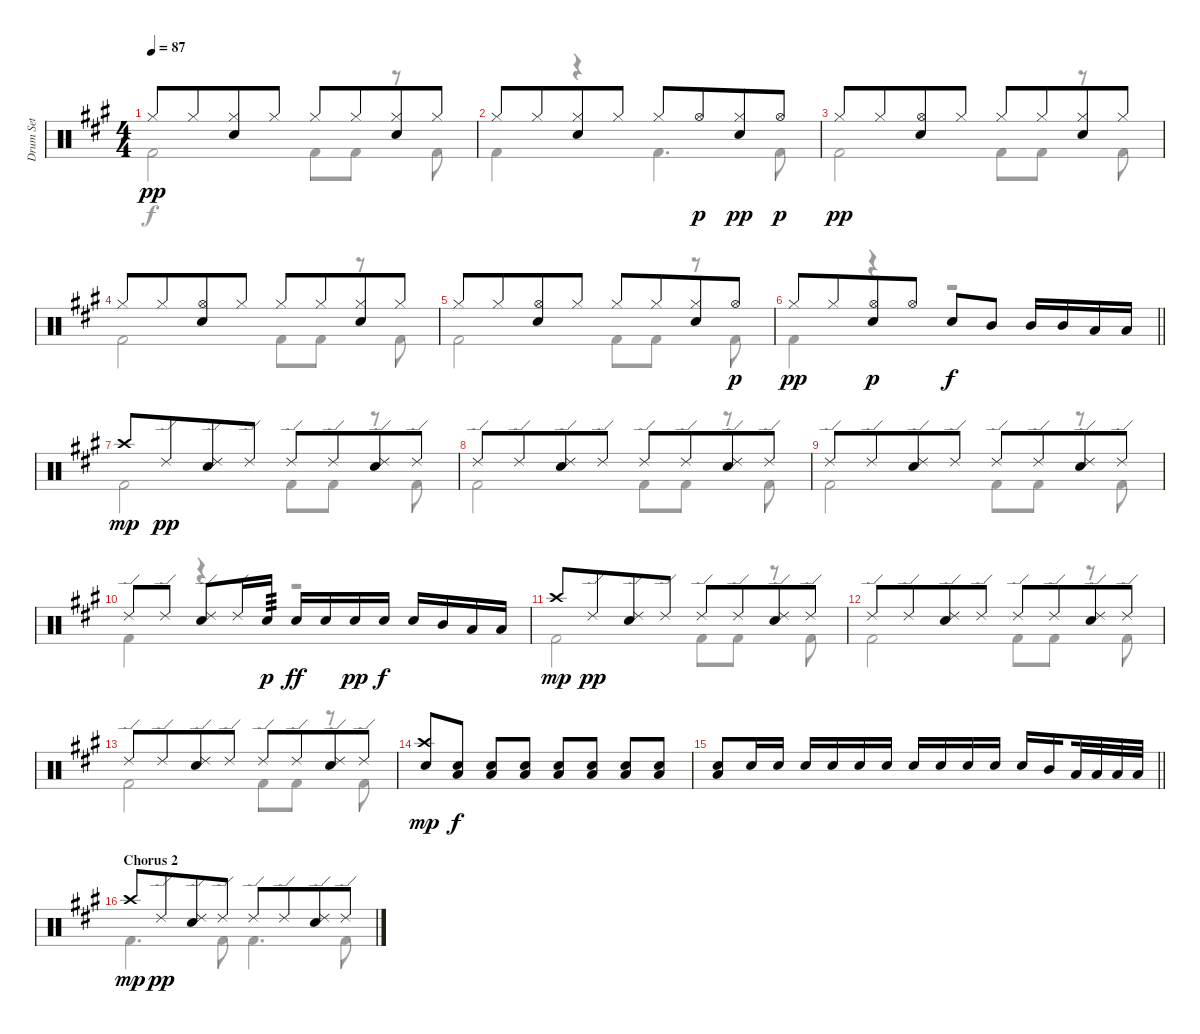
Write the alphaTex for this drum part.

\track ("Drum Set" "Drum Set") {instrument percussion}
\staff {score}
\articulation defaults
\voice
\ts (4 4)
\tempo 87
\clef neutral
\ks f#minor "Hi-Hat (closed)".8{dy pp} "Hi-Hat (closed)".8{beam merge}
("Hi-Hat (closed)" "Electric Snare (hit)").8 "Hi-Hat (closed)".8 "Hi-Hat (closed)".8 "Hi-Hat (closed)".8{beam merge} ("Hi-Hat (closed)" "Electric Snare (hit)").8 "Hi-Hat (closed)".8 |
"Hi-Hat (closed)".8 "Hi-Hat (closed)".8{beam merge} ("Hi-Hat (closed)" "Electric Snare (hit)").8 "Hi-Hat (closed)".8 "Hi-Hat (closed)".8 "Hi-Hat (open)".8{dy p beam merge} ("Hi-Hat (closed)" "Electric Snare (hit)").8{dy pp} "Hi-Hat (open)".8{dy p} |
"Hi-Hat (closed)".8{dy pp} "Hi-Hat (closed)".8{beam merge} ("Hi-Hat (open)" "Electric Snare (hit)").8 "Hi-Hat (closed)".8 "Hi-Hat (closed)".8 "Hi-Hat (closed)".8{beam merge} ("Hi-Hat (closed)" "Electric Snare (hit)").8 "Hi-Hat (closed)".8 |
"Hi-Hat (closed)".8 "Hi-Hat (closed)".8{beam merge} ("Hi-Hat (open)" "Electric Snare (hit)").8 "Hi-Hat (closed)".8 "Hi-Hat (closed)".8 "Hi-Hat (closed)".8{beam merge} ("Hi-Hat (closed)" "Electric Snare (hit)").8 "Hi-Hat (closed)".8 |
"Hi-Hat (closed)".8 "Hi-Hat (closed)".8{beam merge} ("Hi-Hat (open)" "Electric Snare (hit)").8 "Hi-Hat (closed)".8 "Hi-Hat (closed)".8 "Hi-Hat (closed)".8{beam merge} ("Hi-Hat (closed)" "Electric Snare (hit)").8 "Hi-Hat (open)".8{dy p} |
\barLineRight lightlight "Hi-Hat (closed)".8{dy pp} "Hi-Hat (closed)".8{beam merge}
("Hi-Hat (open)" "Electric Snare (hit)").8{dy p} "Hi-Hat (open)".8 "Electric Snare (hit)".8{dy f} "Mid Tom (hit)".8 "Mid Tom (hit)".16 "Mid Tom (hit)".16 "Low Tom (hit)".16 "Low Tom (hit)".16 |
"Crash high (hit)".8{dy mp} "Ride (edge) 2".8{dy pp beam merge} ("Ride (edge) 2" "Electric Snare (hit)").8 "Ride (edge) 2".8 "Ride (edge) 2".8 "Ride (edge) 2".8{beam merge} ("Ride (edge) 2" "Electric Snare (hit)").8 "Ride (edge) 2".8 |
"Ride (edge) 2".8 "Ride (edge) 2".8{beam merge} ("Ride (edge) 2" "Electric Snare (hit)").8 "Ride (edge) 2".8 "Ride (edge) 2".8 "Ride (edge) 2".8{beam merge} ("Ride (edge) 2" "Electric Snare (hit)").8 "Ride (edge) 2".8 |
"Ride (edge) 2".8 "Ride (edge) 2".8{beam merge} ("Ride (edge) 2" "Electric Snare (hit)").8 "Ride (edge) 2".8 "Ride (edge) 2".8 "Ride (edge) 2".8{beam merge} ("Ride (edge) 2" "Electric Snare (hit)").8 "Ride (edge) 2".8 |
"Ride (edge) 2".8 "Ride (edge) 2".8 ("Ride (edge) 2" "Electric Snare (hit)").8 "Ride (edge) 2".16 "Electric Snare (hit)".16{tp 3 dy p} "Electric Snare (hit)".16{dy ff} "Electric Snare (hit)".16 "Electric Snare (hit)".16{dy pp} "Electric Snare (hit)".16{dy f} "Electric Snare (hit)".16 "Mid Tom (hit)".16 "Low Tom (hit)".16 "Low Tom (hit)".16 |
"Crash high (hit)".8{dy mp} "Ride (edge) 2".8{dy pp beam merge} ("Ride (edge) 2" "Electric Snare (hit)").8 "Ride (edge) 2".8 "Ride (edge) 2".8 "Ride (edge) 2".8{beam merge} ("Ride (edge) 2" "Electric Snare (hit)").8 "Ride (edge) 2".8 |
"Ride (edge) 2".8 "Ride (edge) 2".8{beam merge} ("Ride (edge) 2" "Electric Snare (hit)").8 "Ride (edge) 2".8 "Ride (edge) 2".8 "Ride (edge) 2".8{beam merge} ("Ride (edge) 2" "Electric Snare (hit)").8 "Ride (edge) 2".8 |
"Ride (edge) 2".8 "Ride (edge) 2".8{beam merge} ("Ride (edge) 2" "Electric Snare (hit)").8 "Ride (edge) 2".8 "Ride (edge) 2".8 "Ride (edge) 2".8{beam merge} ("Ride (edge) 2" "Electric Snare (hit)").8 "Ride (edge) 2".8 |
("Electric Snare (hit)" "Crash high (hit)").8{dy mp beam Up} ("Electric Snare (hit)" "Low Tom (hit)").8{dy f volume 4 beam Up} ("Electric Snare (hit)" "Low Tom (hit)").8{volume 9 beam Up} ("Electric Snare (hit)" "Low Tom (hit)").8{beam Up} ("Electric Snare (hit)" "Low Tom (hit)").8{beam Up} ("Electric Snare (hit)" "Low Tom (hit)").8{beam Up} ("Electric Snare (hit)" "Low Tom (hit)").8{beam Up} ("Electric Snare (hit)" "Low Tom (hit)").8{beam Up} |
\barLineRight lightlight
("Electric Snare (hit)" "Low Tom (hit)").8{beam Up} "Electric Snare (hit)".16{beam Up} "Electric Snare (hit)".16{beam Up} "Electric Snare (hit)".16{beam Up} "Electric Snare (hit)".16{beam Up} "Electric Snare (hit)".16{beam Up} "Electric Snare (hit)".16{beam Up} "Electric Snare (hit)".16{beam Up} "Electric Snare (hit)".16{beam Up} "Electric Snare (hit)".16{beam Up} "Electric Snare (hit)".16{beam Up} "Electric Snare (hit)".16{beam Up} "Mid Tom (hit)".16{beam Up beam splitsecondary} "Low Tom (hit)".32{beam Up} "Low Tom (hit)".32{beam Up} "Low Tom (hit)".32{beam Up} "Low Tom (hit)".32{beam Up} |
\section ("" "Chorus 2")
"Crash high (hit)".8{dy mp} "Ride (edge) 2".8{dy pp beam merge} ("Ride (edge) 2" "Electric Snare (hit)").8 "Ride (edge) 2".8 "Ride (edge) 2".8 "Ride (edge) 2".8{beam merge} ("Ride (edge) 2" "Electric Snare (hit)").8 "Ride (edge) 2".8
\voice
\clef neutral
\ottava regular
\simile none
\ks f#minor "Kick (hit) 2".2{dy f} "Kick (hit) 2".8 "Kick (hit) 2".8
r.8 "Kick (hit) 2".8 |
"Kick (hit) 2".4 r.4 "Kick (hit) 2".4{d} "Kick (hit) 2".8 |
"Kick (hit) 2".2 "Kick (hit) 2".8 "Kick (hit) 2".8 r.8 "Kick (hit) 2".8 |
"Kick (hit) 2".2 "Kick (hit) 2".8 "Kick (hit) 2".8 r.8 "Kick (hit) 2".8 |
"Kick (hit) 2".2 "Kick (hit) 2".8 "Kick (hit) 2".8 r.8 "Kick (hit) 2".8 |
\barLineRight lightlight "Kick (hit) 2".4
r.4 r.2 |
"Kick (hit) 2".2 "Kick (hit) 2".8 "Kick (hit) 2".8 r.8 "Kick (hit) 2".8 |
"Kick (hit) 2".2 "Kick (hit) 2".8 "Kick (hit) 2".8 r.8 "Kick (hit) 2".8 |
"Kick (hit) 2".2 "Kick (hit) 2".8 "Kick (hit) 2".8 r.8 "Kick (hit) 2".8 |
"Kick (hit) 2".4 r.4 r.2 |
"Kick (hit) 2".2 "Kick (hit) 2".8 "Kick (hit) 2".8 r.8 "Kick (hit) 2".8 |
"Kick (hit) 2".2 "Kick (hit) 2".8 "Kick (hit) 2".8 r.8 "Kick (hit) 2".8 |
"Kick (hit) 2".2 "Kick (hit) 2".8 "Kick (hit) 2".8 r.8 "Kick (hit) 2".8 |
|
\barLineRight lightlight
|
"Kick (hit) 2".4{d} "Kick (hit) 2".8 "Kick (hit) 2".4{d} "Kick (hit) 2".8
